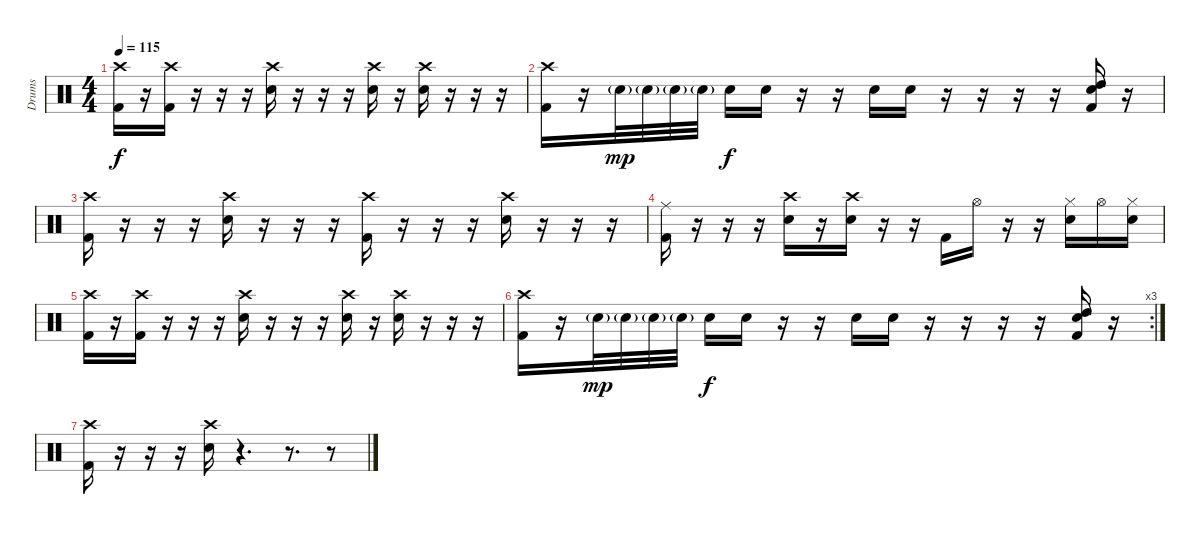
\track ("Drums" "Drums") {instrument percussion}
\staff {score}
\articulation defaults
\ts (4 4)
\tempo 115
\clef neutral
\ks c
("Crash high (hit)" "Kick (hit) 2").16{dy f} r.16 ("Crash high (hit)" "Kick (hit) 2").16 r.16 r.16 r.16 ("Crash high (hit)" "Electric Snare (hit)").16 r.16 r.16 r.16 ("Crash high (hit)" "Electric Snare (hit)").16 r.16 ("Crash high (hit)" "Electric Snare (hit)").16 r.16 r.16 r.16 |
("Crash high (hit)" "Kick (hit) 2").16 r.16 "Electric Snare (hit)"{g}.32{dy mp} "Electric Snare (hit)"{g}.32 "Electric Snare (hit)"{g}.32 "Electric Snare (hit)"{g}.32 "Electric Snare (hit)".16{dy f} "Electric Snare (hit)".16 r.16 r.16 "Electric Snare (hit)".16 "Electric Snare (hit)".16 r.16 r.16 r.16 r.16 ("High Tom (hit)" "Electric Snare (hit)" "Kick (hit) 2").16 r.16 |
("Crash high (hit)" "Kick (hit) 2").16 r.16 r.16 r.16 ("Crash high (hit)" "Electric Snare (hit)").16 r.16 r.16 r.16 ("Crash high (hit)" "Kick (hit) 2").16 r.16 r.16 r.16 ("Crash high (hit)" "Electric Snare (hit)").16 r.16 r.16 r.16 |
("Ride (middle)" "Kick (hit) 2").16 r.16 r.16 r.16 ("Crash high (hit)" "Electric Snare (hit)").16 r.16 ("Crash high (hit)" "Electric Snare (hit)").16 r.16 r.16 "Kick (hit) 2".16 "Hi-Hat (open)".16 r.16 r.16 ("Hi-Hat (closed)" "Electric Snare (hit)").16 "Hi-Hat (open)".16 ("Hi-Hat (closed)" "Electric Snare (hit)").16 |
("Crash high (hit)" "Kick (hit) 2").16 r.16 ("Crash high (hit)" "Kick (hit) 2").16 r.16 r.16 r.16 ("Crash high (hit)" "Electric Snare (hit)").16 r.16 r.16 r.16 ("Crash high (hit)" "Electric Snare (hit)").16 r.16 ("Crash high (hit)" "Electric Snare (hit)").16 r.16 r.16 r.16 |
\rc 3
("Crash high (hit)" "Kick (hit) 2").16 r.16 "Electric Snare (hit)"{g}.32{dy mp} "Electric Snare (hit)"{g}.32 "Electric Snare (hit)"{g}.32 "Electric Snare (hit)"{g}.32 "Electric Snare (hit)".16{dy f} "Electric Snare (hit)".16 r.16 r.16 "Electric Snare (hit)".16 "Electric Snare (hit)".16 r.16 r.16 r.16 r.16 ("High Tom (hit)" "Electric Snare (hit)" "Kick (hit) 2").16 r.16 |
("Crash high (hit)" "Kick (hit) 2").16 r.16 r.16 r.16 ("Crash high (hit)" "Electric Snare (hit)").16 r.4{d} r.8{d} r.8
